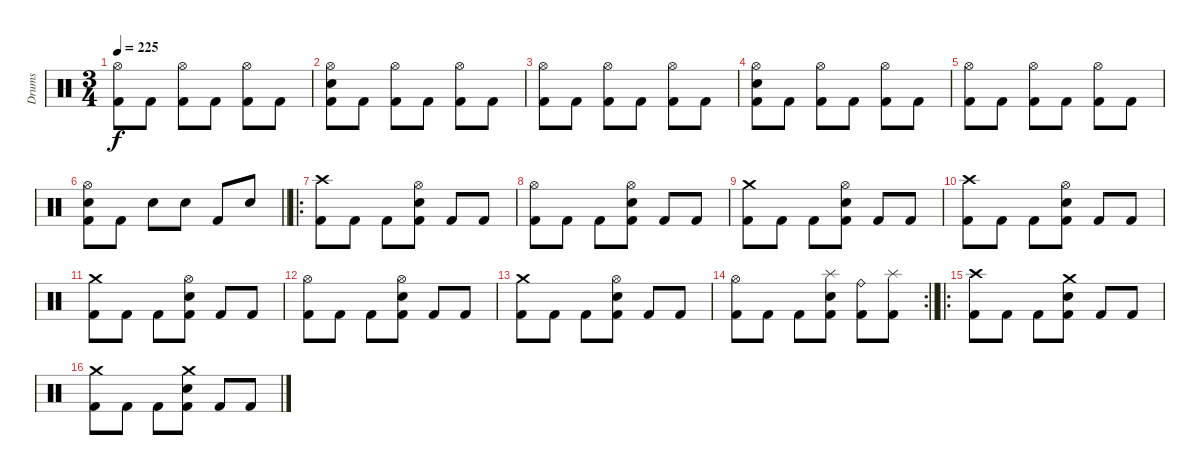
\track ("Drums" "Drums") {instrument percussion}
\staff {score}
\articulation defaults
\ts (3 4)
\tempo 225
\clef neutral
\ks c
("Hi-Hat (open)" "Kick (hit) 2").8{dy f} "Kick (hit) 2".8 ("Hi-Hat (open)" "Kick (hit) 2").8 "Kick (hit) 2".8 ("Hi-Hat (open)" "Kick (hit) 2").8 "Kick (hit) 2".8 |
("Hi-Hat (open)" "Electric Snare (hit)" "Kick (hit) 2").8 "Kick (hit) 2".8 ("Hi-Hat (open)" "Kick (hit) 2").8 "Kick (hit) 2".8 ("Hi-Hat (open)" "Kick (hit) 2").8 "Kick (hit) 2".8 |
("Hi-Hat (open)" "Kick (hit) 2").8 "Kick (hit) 2".8 ("Hi-Hat (open)" "Kick (hit) 2").8 "Kick (hit) 2".8 ("Hi-Hat (open)" "Kick (hit) 2").8 "Kick (hit) 2".8 |
("Hi-Hat (open)" "Electric Snare (hit)" "Kick (hit) 2").8 "Kick (hit) 2".8 ("Hi-Hat (open)" "Kick (hit) 2").8 "Kick (hit) 2".8 ("Hi-Hat (open)" "Kick (hit) 2").8 "Kick (hit) 2".8 |
("Hi-Hat (open)" "Kick (hit) 2").8 "Kick (hit) 2".8 ("Hi-Hat (open)" "Kick (hit) 2").8 "Kick (hit) 2".8 ("Hi-Hat (open)" "Kick (hit) 2").8 "Kick (hit) 2".8 |
\barLineRight lightlight
("Hi-Hat (open)" "Electric Snare (hit)" "Kick (hit) 2").8 "Kick (hit) 2".8 "Electric Snare (hit)".8 "Electric Snare (hit)".8 "Kick (hit) 2".8 "Electric Snare (hit)".8 |
\ro
("Crash high (hit)" "Kick (hit) 2").8 "Kick (hit) 2".8 "Kick (hit) 2".8 ("Hi-Hat (open)" "Electric Snare (hit)" "Kick (hit) 2").8 "Kick (hit) 2".8 "Kick (hit) 2".8 |
("Hi-Hat (open)" "Kick (hit) 2").8 "Kick (hit) 2".8 "Kick (hit) 2".8 ("Hi-Hat (open)" "Electric Snare (hit)" "Kick (hit) 2").8 "Kick (hit) 2".8 "Kick (hit) 2".8 |
("Crash medium (hit)" "Kick (hit) 2").8 "Kick (hit) 2".8 "Kick (hit) 2".8 ("Hi-Hat (open)" "Electric Snare (hit)" "Kick (hit) 2").8 "Kick (hit) 2".8 "Kick (hit) 2".8 |
("Crash high (hit)" "Kick (hit) 2").8 "Kick (hit) 2".8 "Kick (hit) 2".8 ("Hi-Hat (open)" "Electric Snare (hit)" "Kick (hit) 2").8 "Kick (hit) 2".8 "Kick (hit) 2".8 |
("Crash medium (hit)" "Kick (hit) 2").8 "Kick (hit) 2".8 "Kick (hit) 2".8 ("Hi-Hat (open)" "Electric Snare (hit)" "Kick (hit) 2").8 "Kick (hit) 2".8 "Kick (hit) 2".8 |
("Hi-Hat (open)" "Kick (hit) 2").8 "Kick (hit) 2".8 "Kick (hit) 2".8 ("Hi-Hat (open)" "Electric Snare (hit)" "Kick (hit) 2").8 "Kick (hit) 2".8 "Kick (hit) 2".8 |
("Crash medium (hit)" "Kick (hit) 2").8 "Kick (hit) 2".8 "Kick (hit) 2".8 ("Hi-Hat (open)" "Electric Snare (hit)" "Kick (hit) 2").8 "Kick (hit) 2".8 "Kick (hit) 2".8 |
\rc 2
\barLineRight lightlight
("Hi-Hat (open)" "Kick (hit) 2").8 "Kick (hit) 2".8 "Kick (hit) 2".8 ("Splash (hit)" "Electric Snare (hit)" "Kick (hit) 2").8 ("Ride (bell)" "Kick (hit) 2").8 ("Splash (hit)" "Kick (hit) 2").8 |
\ro
("Crash high (hit)" "Kick (hit) 2").8 "Kick (hit) 2".8 "Kick (hit) 2".8 ("Crash medium (hit)" "Electric Snare (hit)" "Kick (hit) 2").8 "Kick (hit) 2".8 "Kick (hit) 2".8 |
("Crash medium (hit)" "Kick (hit) 2").8 "Kick (hit) 2".8 "Kick (hit) 2".8 ("Crash medium (hit)" "Electric Snare (hit)" "Kick (hit) 2").8 "Kick (hit) 2".8 "Kick (hit) 2".8
